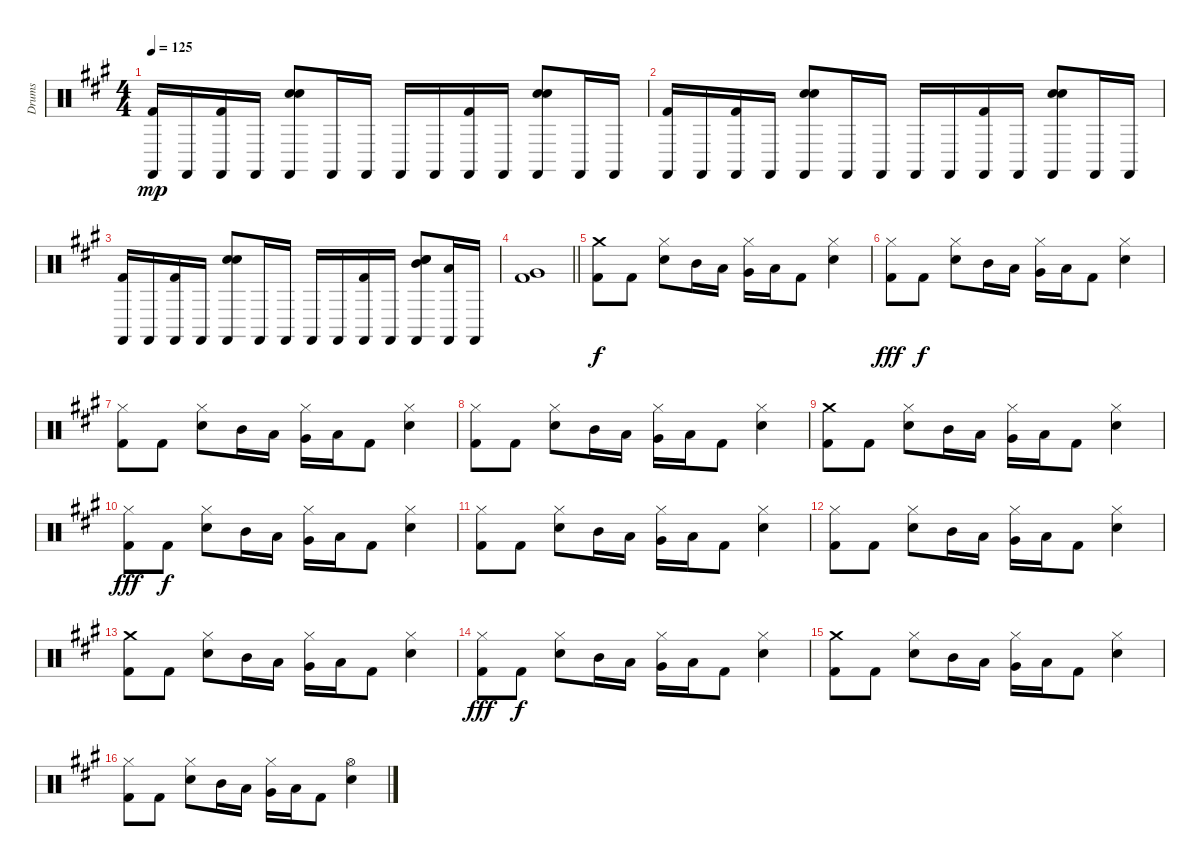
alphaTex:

\track ("Drums" "Drums") {instrument percussion}
\staff {score}
\articulation defaults
\ts (4 4)
\tempo 125
\clef neutral
\ks a
("Castanets (hit)" "Kick (hit) 2").16{dy mp} "Castanets (hit)".16 ("Castanets (hit)" "Kick (hit) 2").16 "Castanets (hit)".16 ("Castanets (hit)" "Hand Clap (hit)" "Snare (hit) 2").8 "Castanets (hit)".16 "Castanets (hit)".16 "Castanets (hit)".16 "Castanets (hit)".16 ("Castanets (hit)" "Kick (hit) 2").16 "Castanets (hit)".16 ("Castanets (hit)" "Hand Clap (hit)" "Snare (hit) 2").8 "Castanets (hit)".16 "Castanets (hit)".16 |
("Castanets (hit)" "Kick (hit) 2").16 "Castanets (hit)".16 ("Castanets (hit)" "Kick (hit) 2").16 "Castanets (hit)".16 ("Castanets (hit)" "Hand Clap (hit)" "Snare (hit) 2").8 "Castanets (hit)".16 "Castanets (hit)".16 "Castanets (hit)".16 "Castanets (hit)".16 ("Castanets (hit)" "Kick (hit) 2").16 "Castanets (hit)".16 ("Castanets (hit)" "Hand Clap (hit)" "Snare (hit) 2").8 "Castanets (hit)".16 "Castanets (hit)".16 |
("Castanets (hit)" "Kick (hit) 2").16 "Castanets (hit)".16 ("Castanets (hit)" "Kick (hit) 2").16 "Castanets (hit)".16 ("Castanets (hit)" "Hand Clap (hit)" "Snare (hit) 2").8 "Castanets (hit)".16 "Castanets (hit)".16 "Castanets (hit)".16 "Castanets (hit)".16 ("Castanets (hit)" "Kick (hit) 2").16 "Castanets (hit)".16 ("Castanets (hit)" "Mid Tom (hit)" "Hand Clap (hit)" "Snare (hit) 2").8 ("Castanets (hit)" "Low Tom (hit)").16 "Castanets (hit)".16 |
\barLineRight lightlight
("Very Low Tom (hit)" "Kick (hit) 2").1 |
("Crash medium (hit)" "Kick (hit) 2").8{dy f} "Kick (hit) 2".8 ("Hi-Hat (closed)" "Snare (hit) 2").8 "Mid Tom (hit)".16 "Low Tom (hit)".16 ("Hi-Hat (closed)" "Very Low Tom (hit)").16 "Low Floor Tom (hit)".16 "Kick (hit) 2".8 ("Hi-Hat (closed)" "Snare (hit) 2").4 |
("Hi-Hat (closed)" "Kick (hit) 2").8{dy fff} "Kick (hit) 2".8{dy f} ("Hi-Hat (closed)" "Snare (hit) 2").8 "Mid Tom (hit)".16 "Low Tom (hit)".16 ("Hi-Hat (closed)" "Very Low Tom (hit)").16 "Low Floor Tom (hit)".16 "Kick (hit) 2".8 ("Hi-Hat (closed)" "Snare (hit) 2").4 |
("Hi-Hat (closed)" "Kick (hit) 2").8 "Kick (hit) 2".8 ("Hi-Hat (closed)" "Snare (hit) 2").8 "Mid Tom (hit)".16 "Low Tom (hit)".16 ("Hi-Hat (closed)" "Very Low Tom (hit)").16 "Low Floor Tom (hit)".16 "Kick (hit) 2".8 ("Hi-Hat (closed)" "Snare (hit) 2").4 |
("Hi-Hat (closed)" "Kick (hit) 2").8 "Kick (hit) 2".8 ("Hi-Hat (closed)" "Snare (hit) 2").8 "Mid Tom (hit)".16 "Low Tom (hit)".16 ("Hi-Hat (closed)" "Very Low Tom (hit)").16 "Low Floor Tom (hit)".16 "Kick (hit) 2".8 ("Hi-Hat (closed)" "Snare (hit) 2").4 |
("Crash medium (hit)" "Kick (hit) 2").8 "Kick (hit) 2".8 ("Hi-Hat (closed)" "Snare (hit) 2").8 "Mid Tom (hit)".16 "Low Tom (hit)".16 ("Hi-Hat (closed)" "Very Low Tom (hit)").16 "Low Floor Tom (hit)".16 "Kick (hit) 2".8 ("Hi-Hat (closed)" "Snare (hit) 2").4 |
("Hi-Hat (closed)" "Kick (hit) 2").8{dy fff} "Kick (hit) 2".8{dy f} ("Hi-Hat (closed)" "Snare (hit) 2").8 "Mid Tom (hit)".16 "Low Tom (hit)".16 ("Hi-Hat (closed)" "Very Low Tom (hit)").16 "Low Floor Tom (hit)".16 "Kick (hit) 2".8 ("Hi-Hat (closed)" "Snare (hit) 2").4 |
("Hi-Hat (closed)" "Kick (hit) 2").8 "Kick (hit) 2".8 ("Hi-Hat (closed)" "Snare (hit) 2").8 "Mid Tom (hit)".16 "Low Tom (hit)".16 ("Hi-Hat (closed)" "Very Low Tom (hit)").16 "Low Floor Tom (hit)".16 "Kick (hit) 2".8 ("Hi-Hat (closed)" "Snare (hit) 2").4 |
("Hi-Hat (closed)" "Kick (hit) 2").8 "Kick (hit) 2".8 ("Hi-Hat (closed)" "Snare (hit) 2").8 "Mid Tom (hit)".16 "Low Tom (hit)".16 ("Hi-Hat (closed)" "Very Low Tom (hit)").16 "Low Floor Tom (hit)".16 "Kick (hit) 2".8 ("Hi-Hat (closed)" "Snare (hit) 2").4 |
("Crash medium (hit)" "Kick (hit) 2").8 "Kick (hit) 2".8 ("Hi-Hat (closed)" "Snare (hit) 2").8 "Mid Tom (hit)".16 "Low Tom (hit)".16 ("Hi-Hat (closed)" "Very Low Tom (hit)").16 "Low Floor Tom (hit)".16 "Kick (hit) 2".8 ("Hi-Hat (closed)" "Snare (hit) 2").4 |
("Hi-Hat (closed)" "Kick (hit) 2").8{dy fff} "Kick (hit) 2".8{dy f} ("Hi-Hat (closed)" "Snare (hit) 2").8 "Mid Tom (hit)".16 "Low Tom (hit)".16 ("Hi-Hat (closed)" "Very Low Tom (hit)").16 "Low Floor Tom (hit)".16 "Kick (hit) 2".8 ("Hi-Hat (closed)" "Snare (hit) 2").4 |
("Crash medium (hit)" "Kick (hit) 2").8 "Kick (hit) 2".8 ("Hi-Hat (closed)" "Snare (hit) 2").8 "Mid Tom (hit)".16 "Low Tom (hit)".16 ("Hi-Hat (closed)" "Very Low Tom (hit)").16 "Low Floor Tom (hit)".16 "Kick (hit) 2".8 ("Hi-Hat (closed)" "Snare (hit) 2").4 |
("Hi-Hat (closed)" "Kick (hit) 2").8 "Kick (hit) 2".8 ("Hi-Hat (closed)" "Snare (hit) 2").8 "Mid Tom (hit)".16 "Low Tom (hit)".16 ("Hi-Hat (closed)" "Very Low Tom (hit)").16 "Low Floor Tom (hit)".16 "Kick (hit) 2".8 ("Hi-Hat (open)" "Snare (hit) 2").4
